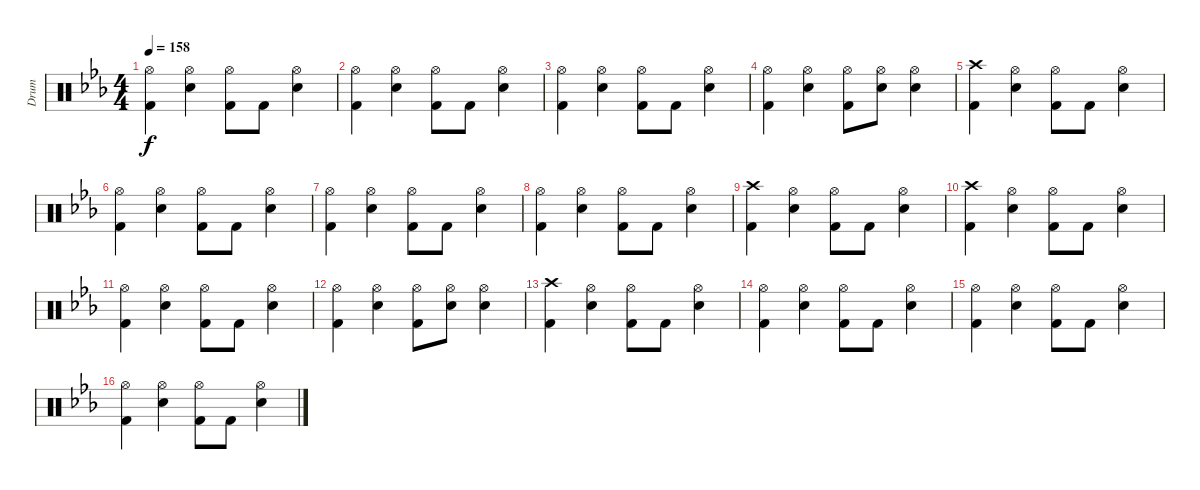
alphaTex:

\track ("Drum" "Drum") {instrument percussion}
\staff {score}
\articulation defaults
\ts (4 4)
\tempo 158
\clef neutral
\ks eb
("Hi-Hat (open)" "Kick (hit) 2").4{dy f} ("Hi-Hat (open)" "Snare (hit) 2").4 ("Hi-Hat (open)" "Kick (hit) 2").8 "Kick (hit) 2".8 ("Hi-Hat (open)" "Snare (hit) 2").4 |
("Hi-Hat (open)" "Kick (hit) 2").4 ("Hi-Hat (open)" "Snare (hit) 2").4 ("Hi-Hat (open)" "Kick (hit) 2").8 "Kick (hit) 2".8 ("Hi-Hat (open)" "Snare (hit) 2").4 |
("Hi-Hat (open)" "Kick (hit) 2").4 ("Hi-Hat (open)" "Snare (hit) 2").4 ("Hi-Hat (open)" "Kick (hit) 2").8 "Kick (hit) 2".8 ("Hi-Hat (open)" "Snare (hit) 2").4 |
("Hi-Hat (open)" "Kick (hit) 2").4 ("Hi-Hat (open)" "Snare (hit) 2").4 ("Hi-Hat (open)" "Kick (hit) 2").8 ("Hi-Hat (open)" "Snare (hit) 2").8 ("Hi-Hat (open)" "Snare (hit) 2").4 |
("Crash high (hit)" "Kick (hit) 2").4 ("Hi-Hat (open)" "Snare (hit) 2").4 ("Hi-Hat (open)" "Kick (hit) 2").8 "Kick (hit) 2".8 ("Hi-Hat (open)" "Snare (hit) 2").4 |
("Hi-Hat (open)" "Kick (hit) 2").4 ("Hi-Hat (open)" "Snare (hit) 2").4 ("Hi-Hat (open)" "Kick (hit) 2").8 "Kick (hit) 2".8 ("Hi-Hat (open)" "Snare (hit) 2").4 |
("Hi-Hat (open)" "Kick (hit) 2").4 ("Hi-Hat (open)" "Snare (hit) 2").4 ("Hi-Hat (open)" "Kick (hit) 2").8 "Kick (hit) 2".8 ("Hi-Hat (open)" "Snare (hit) 2").4 |
("Hi-Hat (open)" "Kick (hit) 2").4 ("Hi-Hat (open)" "Snare (hit) 2").4 ("Hi-Hat (open)" "Kick (hit) 2").8 "Kick (hit) 2".8 ("Hi-Hat (open)" "Snare (hit) 2").4 |
("Crash high (hit)" "Kick (hit) 2").4 ("Hi-Hat (open)" "Snare (hit) 2").4 ("Hi-Hat (open)" "Kick (hit) 2").8 "Kick (hit) 2".8 ("Hi-Hat (open)" "Snare (hit) 2").4 |
("Crash high (hit)" "Kick (hit) 2").4 ("Hi-Hat (open)" "Snare (hit) 2").4 ("Hi-Hat (open)" "Kick (hit) 2").8 "Kick (hit) 2".8 ("Hi-Hat (open)" "Snare (hit) 2").4 |
("Hi-Hat (open)" "Kick (hit) 2").4 ("Hi-Hat (open)" "Snare (hit) 2").4 ("Hi-Hat (open)" "Kick (hit) 2").8 "Kick (hit) 2".8 ("Hi-Hat (open)" "Snare (hit) 2").4 |
("Hi-Hat (open)" "Kick (hit) 2").4 ("Hi-Hat (open)" "Snare (hit) 2").4 ("Hi-Hat (open)" "Kick (hit) 2").8 ("Hi-Hat (open)" "Snare (hit) 2").8 ("Hi-Hat (open)" "Snare (hit) 2").4 |
("Crash high (hit)" "Kick (hit) 2").4 ("Hi-Hat (open)" "Snare (hit) 2").4 ("Hi-Hat (open)" "Kick (hit) 2").8 "Kick (hit) 2".8 ("Hi-Hat (open)" "Snare (hit) 2").4 |
("Hi-Hat (open)" "Kick (hit) 2").4 ("Hi-Hat (open)" "Snare (hit) 2").4 ("Hi-Hat (open)" "Kick (hit) 2").8 "Kick (hit) 2".8 ("Hi-Hat (open)" "Snare (hit) 2").4 |
("Hi-Hat (open)" "Kick (hit) 2").4 ("Hi-Hat (open)" "Snare (hit) 2").4 ("Hi-Hat (open)" "Kick (hit) 2").8 "Kick (hit) 2".8 ("Hi-Hat (open)" "Snare (hit) 2").4 |
("Hi-Hat (open)" "Kick (hit) 2").4 ("Hi-Hat (open)" "Snare (hit) 2").4 ("Hi-Hat (open)" "Kick (hit) 2").8 "Kick (hit) 2".8 ("Hi-Hat (open)" "Snare (hit) 2").4
